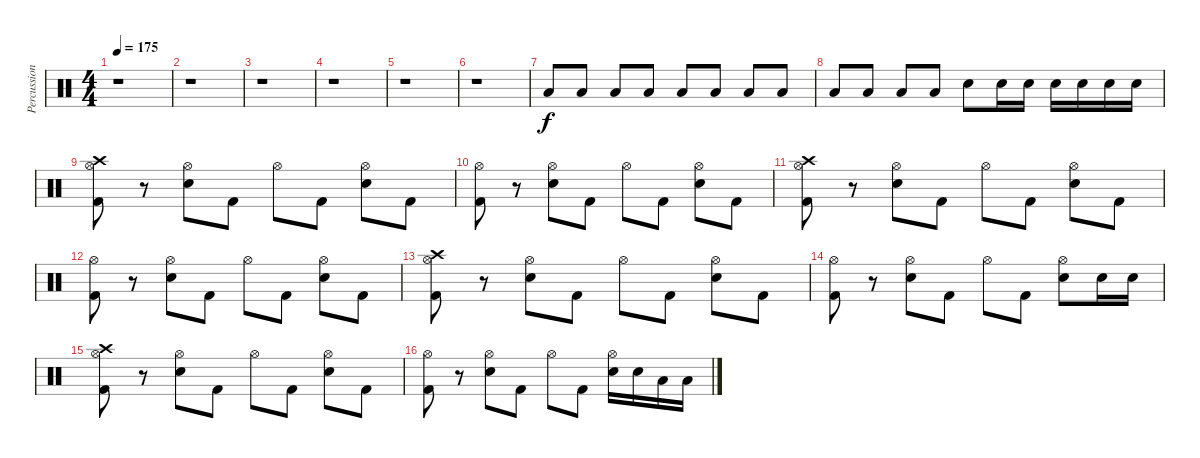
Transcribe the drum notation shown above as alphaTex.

\track ("Percussion" "Percussion") {instrument percussion}
\staff {score}
\articulation defaults
\ts (4 4)
\tempo 175
\clef neutral
\ks c
r.1{dy f} |
r.1 |
r.1 |
r.1 |
r.1 |
r.1 |
"Low Tom (hit)".8 "Low Tom (hit)".8 "Low Tom (hit)".8 "Low Tom (hit)".8 "Low Tom (hit)".8 "Low Tom (hit)".8 "Low Tom (hit)".8 "Low Tom (hit)".8 |
"Low Tom (hit)".8 "Low Tom (hit)".8 "Low Tom (hit)".8 "Low Tom (hit)".8 "Electric Snare (hit)".8 "Electric Snare (hit)".16 "Electric Snare (hit)".16 "Electric Snare (hit)".16 "Electric Snare (hit)".16 "Electric Snare (hit)".16 "Electric Snare (hit)".16 |
("Crash high (hit)" "Hi-Hat (open)" "Kick (hit) 2").8 r.8 ("Hi-Hat (open)" "Electric Snare (hit)").8 "Kick (hit) 2".8 "Hi-Hat (open)".8 "Kick (hit) 2".8 ("Hi-Hat (open)" "Electric Snare (hit)").8 "Kick (hit) 2".8 |
("Hi-Hat (open)" "Kick (hit) 2").8 r.8 ("Hi-Hat (open)" "Electric Snare (hit)").8 "Kick (hit) 2".8 "Hi-Hat (open)".8 "Kick (hit) 2".8 ("Hi-Hat (open)" "Electric Snare (hit)").8 "Kick (hit) 2".8 |
("Crash high (hit)" "Hi-Hat (open)" "Kick (hit) 2").8 r.8 ("Hi-Hat (open)" "Electric Snare (hit)").8 "Kick (hit) 2".8 "Hi-Hat (open)".8 "Kick (hit) 2".8 ("Hi-Hat (open)" "Electric Snare (hit)").8 "Kick (hit) 2".8 |
("Hi-Hat (open)" "Kick (hit) 2").8 r.8 ("Hi-Hat (open)" "Electric Snare (hit)").8 "Kick (hit) 2".8 "Hi-Hat (open)".8 "Kick (hit) 2".8 ("Hi-Hat (open)" "Electric Snare (hit)").8 "Kick (hit) 2".8 |
("Crash high (hit)" "Hi-Hat (open)" "Kick (hit) 2").8 r.8 ("Hi-Hat (open)" "Electric Snare (hit)").8 "Kick (hit) 2".8 "Hi-Hat (open)".8 "Kick (hit) 2".8 ("Hi-Hat (open)" "Electric Snare (hit)").8 "Kick (hit) 2".8 |
("Hi-Hat (open)" "Kick (hit) 2").8 r.8 ("Hi-Hat (open)" "Electric Snare (hit)").8 "Kick (hit) 2".8 "Hi-Hat (open)".8 "Kick (hit) 2".8 ("Hi-Hat (open)" "Electric Snare (hit)").8 "Electric Snare (hit)".16 "Electric Snare (hit)".16 |
("Crash high (hit)" "Hi-Hat (open)" "Kick (hit) 2").8 r.8 ("Hi-Hat (open)" "Electric Snare (hit)").8 "Kick (hit) 2".8 "Hi-Hat (open)".8 "Kick (hit) 2".8 ("Hi-Hat (open)" "Electric Snare (hit)").8 "Kick (hit) 2".8 |
("Hi-Hat (open)" "Kick (hit) 2").8 r.8 ("Hi-Hat (open)" "Electric Snare (hit)").8 "Kick (hit) 2".8 "Hi-Hat (open)".8 "Kick (hit) 2".8 ("Hi-Hat (open)" "Electric Snare (hit)").16 "Electric Snare (hit)".16 "Low Tom (hit)".16 "Low Tom (hit)".16
